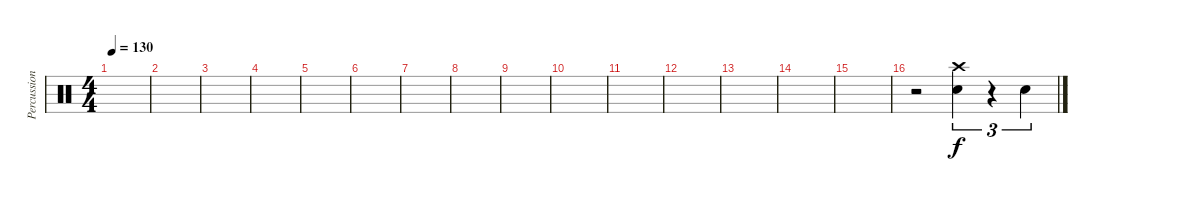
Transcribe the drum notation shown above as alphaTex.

\track ("Percussion" "Percussion") {instrument percussion}
\staff {score}
\articulation defaults
\ts (4 4)
\tempo 130
\clef neutral
\ks c
|
|
|
|
|
|
|
|
|
|
|
|
|
|
|
r.2 ("Crash high (hit)" "Snare (hit) 2").4{tu (3 2)} r.4{tu (3 2)} "Snare (hit) 2".4{tu (3 2)}
